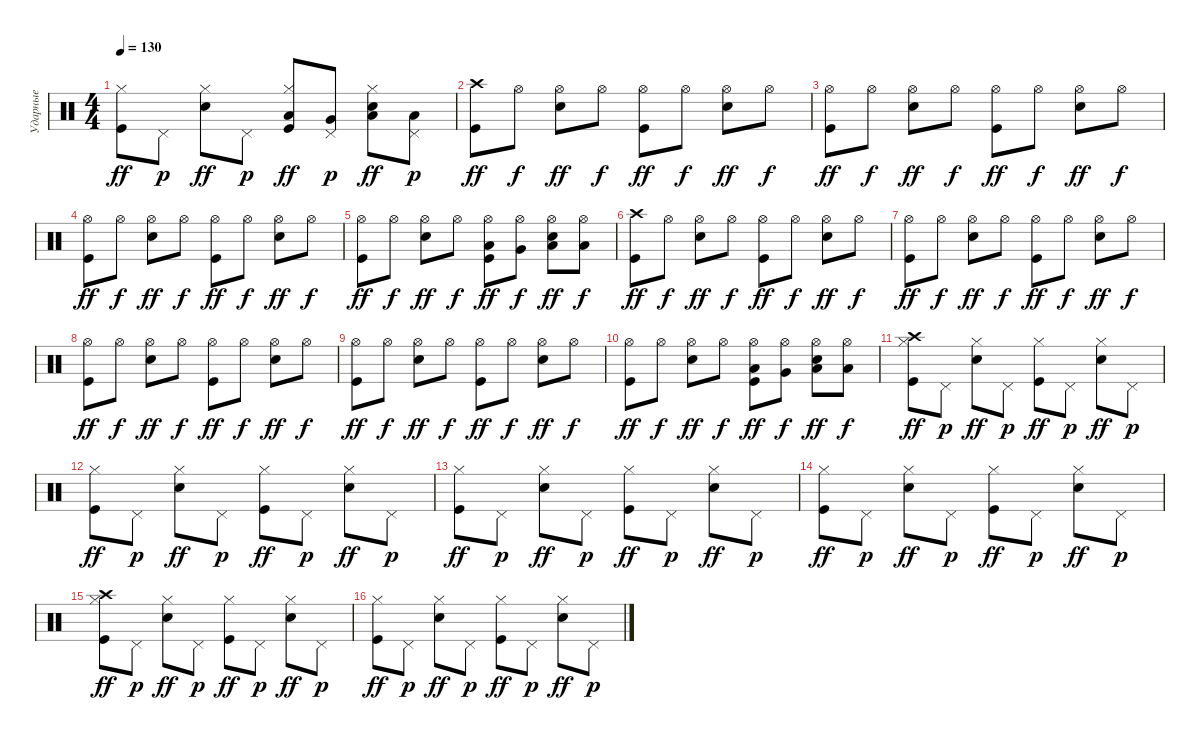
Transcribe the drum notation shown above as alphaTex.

\track ("Ударные" "Ударные") {instrument percussion}
\staff {score}
\articulation defaults
\ts (4 4)
\tempo 130
\clef neutral
\ks c
("Kick (hit)" "Hi-Hat (closed)").8{dy ff} "Pedal Hi-Hat (hit)".8{dy p} ("Electric Snare (hit)" "Hi-Hat (closed)").8{dy ff} "Pedal Hi-Hat (hit)".8{dy p} ("Kick (hit)" "Hi-Hat (closed)" "Low Tom (hit)").8{dy ff} ("Pedal Hi-Hat (hit)" "Very Low Tom (hit)").8{dy p} ("Electric Snare (hit)" "Hi-Hat (closed)" "Low Tom (hit)").8{dy ff} ("Pedal Hi-Hat (hit)" "Low Floor Tom (hit)").8{dy p} |
("Kick (hit)" "Crash high (hit)").8{dy ff} "Hi-Hat (open)".8{dy f} ("Electric Snare (hit)" "Hi-Hat (open)").8{dy ff} "Hi-Hat (open)".8{dy f} ("Kick (hit)" "Hi-Hat (open)").8{dy ff} "Hi-Hat (open)".8{dy f} ("Electric Snare (hit)" "Hi-Hat (open)").8{dy ff} "Hi-Hat (open)".8{dy f} |
("Kick (hit)" "Hi-Hat (open)").8{dy ff} "Hi-Hat (open)".8{dy f} ("Electric Snare (hit)" "Hi-Hat (open)").8{dy ff} "Hi-Hat (open)".8{dy f} ("Kick (hit)" "Hi-Hat (open)").8{dy ff} "Hi-Hat (open)".8{dy f} ("Electric Snare (hit)" "Hi-Hat (open)").8{dy ff} "Hi-Hat (open)".8{dy f} |
("Kick (hit)" "Hi-Hat (open)").8{dy ff} "Hi-Hat (open)".8{dy f} ("Electric Snare (hit)" "Hi-Hat (open)").8{dy ff} "Hi-Hat (open)".8{dy f} ("Kick (hit)" "Hi-Hat (open)").8{dy ff} "Hi-Hat (open)".8{dy f} ("Electric Snare (hit)" "Hi-Hat (open)").8{dy ff} "Hi-Hat (open)".8{dy f} |
("Kick (hit)" "Hi-Hat (open)").8{dy ff} "Hi-Hat (open)".8{dy f} ("Electric Snare (hit)" "Hi-Hat (open)").8{dy ff} "Hi-Hat (open)".8{dy f} ("Kick (hit)" "Hi-Hat (open)" "Low Tom (hit)").8{dy ff} ("Hi-Hat (open)" "Very Low Tom (hit)").8{dy f} ("Electric Snare (hit)" "Hi-Hat (open)" "Low Tom (hit)").8{dy ff} ("Hi-Hat (open)" "Low Floor Tom (hit)").8{dy f} |
("Kick (hit)" "Crash high (hit)").8{dy ff} "Hi-Hat (open)".8{dy f} ("Electric Snare (hit)" "Hi-Hat (open)").8{dy ff} "Hi-Hat (open)".8{dy f} ("Kick (hit)" "Hi-Hat (open)").8{dy ff} "Hi-Hat (open)".8{dy f} ("Electric Snare (hit)" "Hi-Hat (open)").8{dy ff} "Hi-Hat (open)".8{dy f} |
("Kick (hit)" "Hi-Hat (open)").8{dy ff} "Hi-Hat (open)".8{dy f} ("Electric Snare (hit)" "Hi-Hat (open)").8{dy ff} "Hi-Hat (open)".8{dy f} ("Kick (hit)" "Hi-Hat (open)").8{dy ff} "Hi-Hat (open)".8{dy f} ("Electric Snare (hit)" "Hi-Hat (open)").8{dy ff} "Hi-Hat (open)".8{dy f} |
("Kick (hit)" "Hi-Hat (open)").8{dy ff} "Hi-Hat (open)".8{dy f} ("Electric Snare (hit)" "Hi-Hat (open)").8{dy ff} "Hi-Hat (open)".8{dy f} ("Kick (hit)" "Hi-Hat (open)").8{dy ff} "Hi-Hat (open)".8{dy f} ("Electric Snare (hit)" "Hi-Hat (open)").8{dy ff} "Hi-Hat (open)".8{dy f} |
("Kick (hit)" "Hi-Hat (open)").8{dy ff} "Hi-Hat (open)".8{dy f} ("Electric Snare (hit)" "Hi-Hat (open)").8{dy ff} "Hi-Hat (open)".8{dy f} ("Kick (hit)" "Hi-Hat (open)").8{dy ff} "Hi-Hat (open)".8{dy f} ("Electric Snare (hit)" "Hi-Hat (open)").8{dy ff} "Hi-Hat (open)".8{dy f} |
("Kick (hit)" "Hi-Hat (open)").8{dy ff} "Hi-Hat (open)".8{dy f} ("Electric Snare (hit)" "Hi-Hat (open)").8{dy ff} "Hi-Hat (open)".8{dy f} ("Kick (hit)" "Hi-Hat (open)" "Low Tom (hit)").8{dy ff} ("Hi-Hat (open)" "Very Low Tom (hit)").8{dy f} ("Electric Snare (hit)" "Hi-Hat (open)" "Low Tom (hit)").8{dy ff} ("Hi-Hat (open)" "Low Floor Tom (hit)").8{dy f} |
("Kick (hit)" "Hi-Hat (closed)" "Crash high (hit)").8{dy ff} "Pedal Hi-Hat (hit)".8{dy p} ("Electric Snare (hit)" "Hi-Hat (closed)").8{dy ff} "Pedal Hi-Hat (hit)".8{dy p} ("Kick (hit)" "Hi-Hat (closed)").8{dy ff} "Pedal Hi-Hat (hit)".8{dy p} ("Electric Snare (hit)" "Hi-Hat (closed)").8{dy ff} "Pedal Hi-Hat (hit)".8{dy p} |
("Kick (hit)" "Hi-Hat (closed)").8{dy ff} "Pedal Hi-Hat (hit)".8{dy p} ("Electric Snare (hit)" "Hi-Hat (closed)").8{dy ff} "Pedal Hi-Hat (hit)".8{dy p} ("Kick (hit)" "Hi-Hat (closed)").8{dy ff} "Pedal Hi-Hat (hit)".8{dy p} ("Electric Snare (hit)" "Hi-Hat (closed)").8{dy ff} "Pedal Hi-Hat (hit)".8{dy p} |
("Kick (hit)" "Hi-Hat (closed)").8{dy ff} "Pedal Hi-Hat (hit)".8{dy p} ("Electric Snare (hit)" "Hi-Hat (closed)").8{dy ff} "Pedal Hi-Hat (hit)".8{dy p} ("Kick (hit)" "Hi-Hat (closed)").8{dy ff} "Pedal Hi-Hat (hit)".8{dy p} ("Electric Snare (hit)" "Hi-Hat (closed)").8{dy ff} "Pedal Hi-Hat (hit)".8{dy p} |
("Kick (hit)" "Hi-Hat (closed)").8{dy ff} "Pedal Hi-Hat (hit)".8{dy p} ("Electric Snare (hit)" "Hi-Hat (closed)").8{dy ff} "Pedal Hi-Hat (hit)".8{dy p} ("Kick (hit)" "Hi-Hat (closed)").8{dy ff} "Pedal Hi-Hat (hit)".8{dy p} ("Electric Snare (hit)" "Hi-Hat (closed)").8{dy ff} "Pedal Hi-Hat (hit)".8{dy p} |
("Kick (hit)" "Hi-Hat (closed)" "Crash high (hit)").8{dy ff} "Pedal Hi-Hat (hit)".8{dy p} ("Electric Snare (hit)" "Hi-Hat (closed)").8{dy ff} "Pedal Hi-Hat (hit)".8{dy p} ("Kick (hit)" "Hi-Hat (closed)").8{dy ff} "Pedal Hi-Hat (hit)".8{dy p} ("Electric Snare (hit)" "Hi-Hat (closed)").8{dy ff} "Pedal Hi-Hat (hit)".8{dy p} |
("Kick (hit)" "Hi-Hat (closed)").8{dy ff} "Pedal Hi-Hat (hit)".8{dy p} ("Electric Snare (hit)" "Hi-Hat (closed)").8{dy ff} "Pedal Hi-Hat (hit)".8{dy p} ("Kick (hit)" "Hi-Hat (closed)").8{dy ff} "Pedal Hi-Hat (hit)".8{dy p} ("Electric Snare (hit)" "Hi-Hat (closed)").8{dy ff} "Pedal Hi-Hat (hit)".8{dy p}
